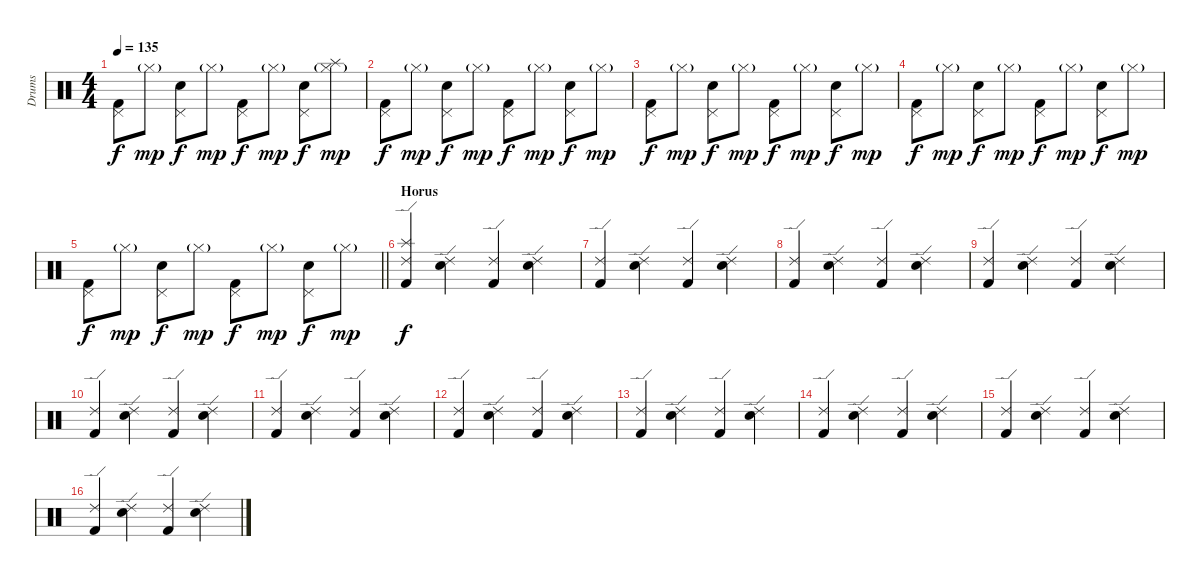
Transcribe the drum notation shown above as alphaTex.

\track ("Drums" "Drums") {instrument percussion}
\staff {score}
\articulation defaults
\ts (4 4)
\tempo 135
\clef neutral
\ks c
("Kick (hit) 2" "Pedal Hi-Hat (hit)").8{dy f} "Hi-Hat (closed)"{g}.8{dy mp} ("Snare (hit) 2" "Pedal Hi-Hat (hit)").8{dy f} "Hi-Hat (closed)"{g}.8{dy mp} ("Kick (hit) 2" "Pedal Hi-Hat (hit)").8{dy f} "Hi-Hat (closed)"{g}.8{dy mp} ("Snare (hit) 2" "Pedal Hi-Hat (hit)").8{dy f} ("Hi-Hat (closed)"{g} "Splash (hit)").8{dy mp} |
("Kick (hit) 2" "Pedal Hi-Hat (hit)").8{dy f} "Hi-Hat (closed)"{g}.8{dy mp} ("Snare (hit) 2" "Pedal Hi-Hat (hit)").8{dy f} "Hi-Hat (closed)"{g}.8{dy mp} ("Kick (hit) 2" "Pedal Hi-Hat (hit)").8{dy f} "Hi-Hat (closed)"{g}.8{dy mp} ("Snare (hit) 2" "Pedal Hi-Hat (hit)").8{dy f} "Hi-Hat (closed)"{g}.8{dy mp} |
("Kick (hit) 2" "Pedal Hi-Hat (hit)").8{dy f} "Hi-Hat (closed)"{g}.8{dy mp} ("Snare (hit) 2" "Pedal Hi-Hat (hit)").8{dy f} "Hi-Hat (closed)"{g}.8{dy mp} ("Kick (hit) 2" "Pedal Hi-Hat (hit)").8{dy f} "Hi-Hat (closed)"{g}.8{dy mp} ("Snare (hit) 2" "Pedal Hi-Hat (hit)").8{dy f} "Hi-Hat (closed)"{g}.8{dy mp} |
("Kick (hit) 2" "Pedal Hi-Hat (hit)").8{dy f} "Hi-Hat (closed)"{g}.8{dy mp} ("Snare (hit) 2" "Pedal Hi-Hat (hit)").8{dy f} "Hi-Hat (closed)"{g}.8{dy mp} ("Kick (hit) 2" "Pedal Hi-Hat (hit)").8{dy f} "Hi-Hat (closed)"{g}.8{dy mp} ("Snare (hit) 2" "Pedal Hi-Hat (hit)").8{dy f} "Hi-Hat (closed)"{g}.8{dy mp} |
\barLineRight lightlight
("Kick (hit) 2" "Pedal Hi-Hat (hit)").8{dy f} "Hi-Hat (closed)"{g}.8{dy mp} ("Snare (hit) 2" "Pedal Hi-Hat (hit)").8{dy f} "Hi-Hat (closed)"{g}.8{dy mp} ("Kick (hit) 2" "Pedal Hi-Hat (hit)").8{dy f} "Hi-Hat (closed)"{g}.8{dy mp} ("Snare (hit) 2" "Pedal Hi-Hat (hit)").8{dy f} "Hi-Hat (closed)"{g}.8{dy mp} |
\section ("" "Horus")
("Kick (hit) 2" "Ride (edge) 2" "Splash (hit)").4{dy f} ("Snare (hit) 2" "Ride (edge) 2").4 ("Kick (hit) 2" "Ride (edge) 2").4 ("Snare (hit) 2" "Ride (edge) 2").4 |
("Kick (hit) 2" "Ride (edge) 2").4 ("Snare (hit) 2" "Ride (edge) 2").4 ("Kick (hit) 2" "Ride (edge) 2").4 ("Snare (hit) 2" "Ride (edge) 2").4 |
("Kick (hit) 2" "Ride (edge) 2").4 ("Snare (hit) 2" "Ride (edge) 2").4 ("Kick (hit) 2" "Ride (edge) 2").4 ("Snare (hit) 2" "Ride (edge) 2").4 |
("Kick (hit) 2" "Ride (edge) 2").4 ("Snare (hit) 2" "Ride (edge) 2").4 ("Kick (hit) 2" "Ride (edge) 2").4 ("Snare (hit) 2" "Ride (edge) 2").4 |
("Kick (hit) 2" "Ride (edge) 2").4 ("Snare (hit) 2" "Ride (edge) 2").4 ("Kick (hit) 2" "Ride (edge) 2").4 ("Snare (hit) 2" "Ride (edge) 2").4 |
("Kick (hit) 2" "Ride (edge) 2").4 ("Snare (hit) 2" "Ride (edge) 2").4 ("Kick (hit) 2" "Ride (edge) 2").4 ("Snare (hit) 2" "Ride (edge) 2").4 |
("Kick (hit) 2" "Ride (edge) 2").4 ("Snare (hit) 2" "Ride (edge) 2").4 ("Kick (hit) 2" "Ride (edge) 2").4 ("Snare (hit) 2" "Ride (edge) 2").4 |
("Kick (hit) 2" "Ride (edge) 2").4 ("Snare (hit) 2" "Ride (edge) 2").4 ("Kick (hit) 2" "Ride (edge) 2").4 ("Snare (hit) 2" "Ride (edge) 2").4 |
("Kick (hit) 2" "Ride (edge) 2").4 ("Snare (hit) 2" "Ride (edge) 2").4 ("Kick (hit) 2" "Ride (edge) 2").4 ("Snare (hit) 2" "Ride (edge) 2").4 |
("Kick (hit) 2" "Ride (edge) 2").4 ("Snare (hit) 2" "Ride (edge) 2").4 ("Kick (hit) 2" "Ride (edge) 2").4 ("Snare (hit) 2" "Ride (edge) 2").4 |
("Kick (hit) 2" "Ride (edge) 2").4 ("Snare (hit) 2" "Ride (edge) 2").4 ("Kick (hit) 2" "Ride (edge) 2").4 ("Snare (hit) 2" "Ride (edge) 2").4
